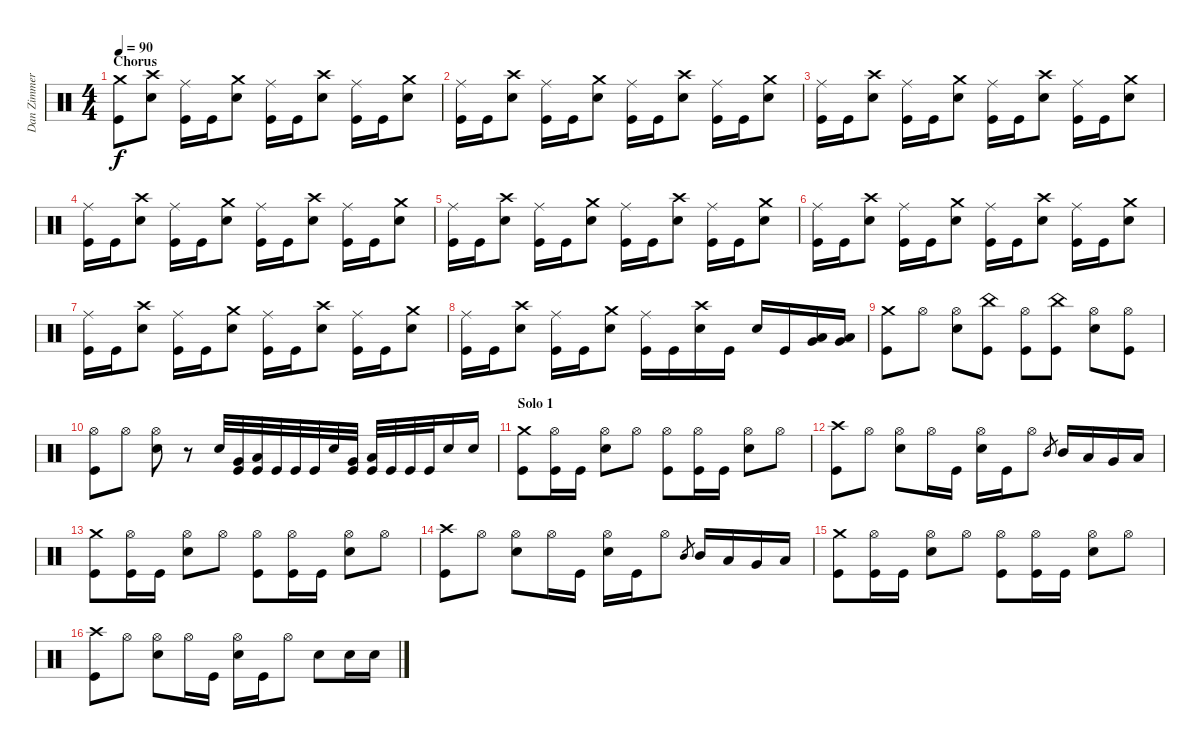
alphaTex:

\track ("Dan Zimmerman" "Dan Zimmer") {instrument percussion}
\staff {score}
\articulation defaults
\ts (4 4)
\section ("" "Chorus")
\tempo 90
\clef neutral
\ks c
("Crash medium (hit)" "Kick (hit)").8{dy f} ("Crash high (hit)" "Snare (hit) 2").8 ("Ride (middle)" "Kick (hit)").16 "Kick (hit)".16 ("Crash medium (hit)" "Snare (hit) 2").8 ("Ride (middle)" "Kick (hit)").16 "Kick (hit)".16 ("Crash high (hit)" "Snare (hit) 2").8 ("Ride (middle)" "Kick (hit)").16 "Kick (hit)".16 ("Crash medium (hit)" "Snare (hit) 2").8 |
("Ride (middle)" "Kick (hit)").16 "Kick (hit)".16 ("Crash high (hit)" "Snare (hit) 2").8 ("Ride (middle)" "Kick (hit)").16 "Kick (hit)".16 ("Crash medium (hit)" "Snare (hit) 2").8 ("Ride (middle)" "Kick (hit)").16 "Kick (hit)".16 ("Crash high (hit)" "Snare (hit) 2").8 ("Ride (middle)" "Kick (hit)").16 "Kick (hit)".16 ("Crash medium (hit)" "Snare (hit) 2").8 |
("Ride (middle)" "Kick (hit)").16 "Kick (hit)".16 ("Crash high (hit)" "Snare (hit) 2").8 ("Ride (middle)" "Kick (hit)").16 "Kick (hit)".16 ("Crash medium (hit)" "Snare (hit) 2").8 ("Ride (middle)" "Kick (hit)").16 "Kick (hit)".16 ("Crash high (hit)" "Snare (hit) 2").8 ("Ride (middle)" "Kick (hit)").16 "Kick (hit)".16 ("Crash medium (hit)" "Snare (hit) 2").8 |
("Ride (middle)" "Kick (hit)").16 "Kick (hit)".16 ("Crash high (hit)" "Snare (hit) 2").8 ("Ride (middle)" "Kick (hit)").16 "Kick (hit)".16 ("Crash medium (hit)" "Snare (hit) 2").8 ("Ride (middle)" "Kick (hit)").16 "Kick (hit)".16 ("Crash high (hit)" "Snare (hit) 2").8 ("Ride (middle)" "Kick (hit)").16 "Kick (hit)".16 ("Crash medium (hit)" "Snare (hit) 2").8 |
("Ride (middle)" "Kick (hit)").16 "Kick (hit)".16 ("Crash high (hit)" "Snare (hit) 2").8 ("Ride (middle)" "Kick (hit)").16 "Kick (hit)".16 ("Crash medium (hit)" "Snare (hit) 2").8 ("Ride (middle)" "Kick (hit)").16 "Kick (hit)".16 ("Crash high (hit)" "Snare (hit) 2").8 ("Ride (middle)" "Kick (hit)").16 "Kick (hit)".16 ("Crash medium (hit)" "Snare (hit) 2").8 |
("Ride (middle)" "Kick (hit)").16 "Kick (hit)".16 ("Crash high (hit)" "Snare (hit) 2").8 ("Ride (middle)" "Kick (hit)").16 "Kick (hit)".16 ("Crash medium (hit)" "Snare (hit) 2").8 ("Ride (middle)" "Kick (hit)").16 "Kick (hit)".16 ("Crash high (hit)" "Snare (hit) 2").8 ("Ride (middle)" "Kick (hit)").16 "Kick (hit)".16 ("Crash medium (hit)" "Snare (hit) 2").8 |
("Ride (middle)" "Kick (hit)").16 "Kick (hit)".16 ("Crash high (hit)" "Snare (hit) 2").8 ("Ride (middle)" "Kick (hit)").16 "Kick (hit)".16 ("Crash medium (hit)" "Snare (hit) 2").8 ("Ride (middle)" "Kick (hit)").16 "Kick (hit)".16 ("Crash high (hit)" "Snare (hit) 2").8 ("Ride (middle)" "Kick (hit)").16 "Kick (hit)".16 ("Crash medium (hit)" "Snare (hit) 2").8 |
("Ride (middle)" "Kick (hit)").16 "Kick (hit)".16 ("Crash high (hit)" "Snare (hit) 2").8 ("Ride (middle)" "Kick (hit)").16 "Kick (hit)".16 ("Crash medium (hit)" "Snare (hit) 2").8 ("Ride (middle)" "Kick (hit)").16 "Kick (hit)".16 ("Crash high (hit)" "Snare (hit) 2").16 "Kick (hit)".16 "Snare (hit) 2".16 "Kick (hit)".16 ("Low Tom (hit)" "Very Low Tom (hit)").16 ("Low Tom (hit)" "Very Low Tom (hit)").16 |
("Crash medium (hit)" "Kick (hit)").8 "Hi-Hat (open)".8 ("Hi-Hat (open)" "Snare (hit) 2").8 ("China (hit)" "Kick (hit)").8 ("Hi-Hat (open)" "Kick (hit)").8 ("China (hit)" "Kick (hit)").8 ("Hi-Hat (open)" "Snare (hit) 2").8 ("Hi-Hat (open)" "Kick (hit)").8 |
("Hi-Hat (open)" "Kick (hit)").8 "Hi-Hat (open)".8 ("Hi-Hat (open)" "Snare (hit) 2").8 r.8 "Snare (hit) 2".32 ("Very Low Tom (hit)" "Kick (hit)").32 ("Low Floor Tom (hit)" "Kick (hit)").32 "Kick (hit)".32 "Kick (hit)".32 "Kick (hit)".32 "Snare (hit) 2".32 ("Very Low Tom (hit)" "Kick (hit)").32 ("Low Floor Tom (hit)" "Kick (hit)").32 "Kick (hit)".32 "Kick (hit)".32 "Kick (hit)".32 "Snare (hit) 2".16 "Snare (hit) 2".16 |
\section ("" "Solo 1")
("Crash medium (hit)" "Kick (hit)").8 ("Hi-Hat (open)" "Kick (hit)").16 "Kick (hit)".16 ("Hi-Hat (open)" "Snare (hit) 2").8 "Hi-Hat (open)".8 ("Hi-Hat (open)" "Kick (hit)").8 ("Hi-Hat (open)" "Kick (hit)").16 "Kick (hit)".16 ("Hi-Hat (open)" "Snare (hit) 2").8 "Hi-Hat (open)".8 |
("Crash high (hit)" "Kick (hit)").8 "Hi-Hat (open)".8 ("Hi-Hat (open)" "Snare (hit) 2").8 "Hi-Hat (open)".16 "Kick (hit)".16 ("Hi-Hat (open)" "Snare (hit) 2").16 "Kick (hit)".16 "Hi-Hat (open)".8 "Mid Tom (hit)".8{gr} "Mid Tom (hit)".16 "Low Tom (hit)".16 "Very Low Tom (hit)".16 "Low Floor Tom (hit)".16 |
("Crash medium (hit)" "Kick (hit)").8 ("Hi-Hat (open)" "Kick (hit)").16 "Kick (hit)".16 ("Hi-Hat (open)" "Snare (hit) 2").8 "Hi-Hat (open)".8 ("Hi-Hat (open)" "Kick (hit)").8 ("Hi-Hat (open)" "Kick (hit)").16 "Kick (hit)".16 ("Hi-Hat (open)" "Snare (hit) 2").8 "Hi-Hat (open)".8 |
("Crash high (hit)" "Kick (hit)").8 "Hi-Hat (open)".8 ("Hi-Hat (open)" "Snare (hit) 2").8 "Hi-Hat (open)".16 "Kick (hit)".16 ("Hi-Hat (open)" "Snare (hit) 2").16 "Kick (hit)".16 "Hi-Hat (open)".8 "Mid Tom (hit)".8{gr} "Mid Tom (hit)".16 "Low Tom (hit)".16 "Very Low Tom (hit)".16 "Low Floor Tom (hit)".16 |
("Crash medium (hit)" "Kick (hit)").8 ("Hi-Hat (open)" "Kick (hit)").16 "Kick (hit)".16 ("Hi-Hat (open)" "Snare (hit) 2").8 "Hi-Hat (open)".8 ("Hi-Hat (open)" "Kick (hit)").8 ("Hi-Hat (open)" "Kick (hit)").16 "Kick (hit)".16 ("Hi-Hat (open)" "Snare (hit) 2").8 "Hi-Hat (open)".8 |
("Crash high (hit)" "Kick (hit)").8 "Hi-Hat (open)".8 ("Hi-Hat (open)" "Snare (hit) 2").8 "Hi-Hat (open)".16 "Kick (hit)".16 ("Hi-Hat (open)" "Snare (hit) 2").16 "Kick (hit)".16 "Hi-Hat (open)".8 "Snare (hit) 2".8 "Snare (hit) 2".16 "Snare (hit) 2".16
